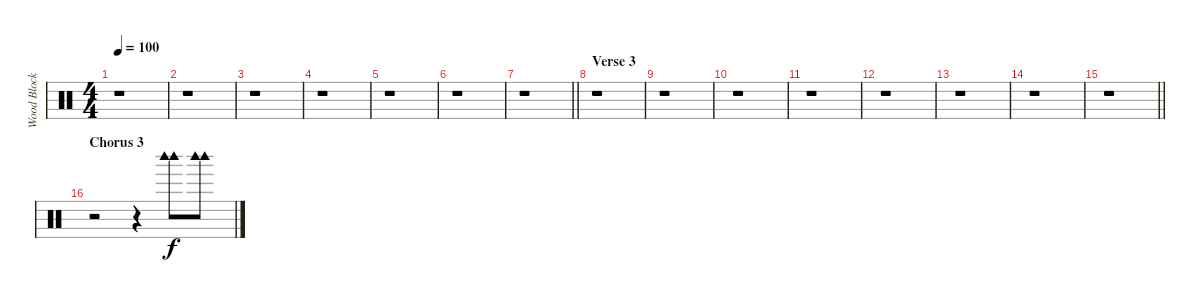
\track ("Wood Block - Chad" "Wood Block") {instrument percussion}
\staff {score}
\articulation defaults
\ts (4 4)
\tempo 100
\clef neutral
\ks c
r.1{dy f} |
r.1 |
r.1 |
r.1 |
r.1 |
r.1 |
\barLineRight lightlight
r.1 |
\section ("" "Verse 3")
r.1 |
r.1 |
r.1 |
r.1 |
r.1 |
r.1 |
r.1 |
\barLineRight lightlight
r.1 |
\section ("" "Chorus 3")
r.2 r.4 ("Woodblock high (hit)" "Woodblock high (hit)").8 ("Woodblock high (hit)" "Woodblock high (hit)").8
